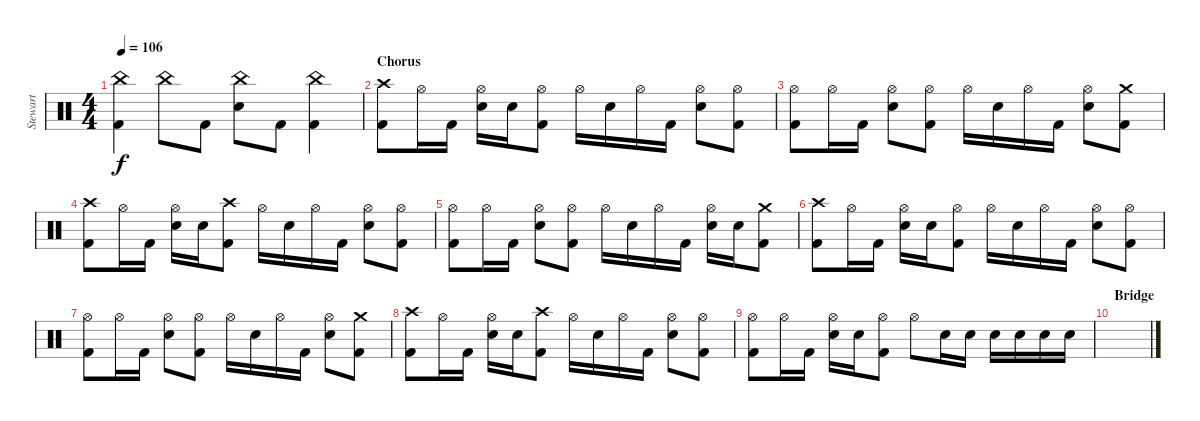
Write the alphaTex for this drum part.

\track ("Stewart" "Stewart") {instrument percussion}
\staff {score}
\articulation defaults
\ts (4 4)
\tempo 106
\clef neutral
\ks c
("China (hit)" "Kick (hit) 2").4{dy f} "China (hit)".8 "Kick (hit) 2".8 ("China (hit)" "Electric Snare (hit)").8 "Kick (hit) 2".8 ("China (hit)" "Kick (hit) 2").4 |
\section ("" "Chorus")
("Crash high (hit)" "Kick (hit) 2").8 "Hi-Hat (open)".16 "Kick (hit) 2".16 ("Hi-Hat (open)" "Electric Snare (hit)").16 "Electric Snare (hit)".16 ("Hi-Hat (open)" "Kick (hit) 2").8 "Hi-Hat (open)".16 "Electric Snare (hit)".16 "Hi-Hat (open)".16 "Kick (hit) 2".16 ("Hi-Hat (open)" "Electric Snare (hit)").8 ("Hi-Hat (open)" "Kick (hit) 2").8 |
("Hi-Hat (open)" "Kick (hit) 2").8 "Hi-Hat (open)".16 "Kick (hit) 2".16 ("Hi-Hat (open)" "Electric Snare (hit)").8 ("Hi-Hat (open)" "Kick (hit) 2").8 "Hi-Hat (open)".16 "Electric Snare (hit)".16 "Hi-Hat (open)".16 "Kick (hit) 2".16 ("Hi-Hat (open)" "Electric Snare (hit)").8 ("Crash medium (hit)" "Kick (hit) 2").8 |
("Crash high (hit)" "Kick (hit) 2").8 "Hi-Hat (open)".16 "Kick (hit) 2".16 ("Hi-Hat (open)" "Electric Snare (hit)").16 "Electric Snare (hit)".16 ("Crash high (hit)" "Kick (hit) 2").8 "Hi-Hat (open)".16 "Electric Snare (hit)".16 "Hi-Hat (open)".16 "Kick (hit) 2".16 ("Hi-Hat (open)" "Electric Snare (hit)").8 ("Hi-Hat (open)" "Kick (hit) 2").8 |
("Hi-Hat (open)" "Kick (hit) 2").8 "Hi-Hat (open)".16 "Kick (hit) 2".16 ("Hi-Hat (open)" "Electric Snare (hit)").8 ("Hi-Hat (open)" "Kick (hit) 2").8 "Hi-Hat (open)".16 "Electric Snare (hit)".16 "Hi-Hat (open)".16 "Kick (hit) 2".16 ("Hi-Hat (open)" "Electric Snare (hit)").16 "Electric Snare (hit)".16 ("Crash medium (hit)" "Kick (hit) 2").8 |
("Crash high (hit)" "Kick (hit) 2").8 "Hi-Hat (open)".16 "Kick (hit) 2".16 ("Hi-Hat (open)" "Electric Snare (hit)").16 "Electric Snare (hit)".16 ("Hi-Hat (open)" "Kick (hit) 2").8 "Hi-Hat (open)".16 "Electric Snare (hit)".16 "Hi-Hat (open)".16 "Kick (hit) 2".16 ("Hi-Hat (open)" "Electric Snare (hit)").8 ("Hi-Hat (open)" "Kick (hit) 2").8 |
("Hi-Hat (open)" "Kick (hit) 2").8 "Hi-Hat (open)".16 "Kick (hit) 2".16 ("Hi-Hat (open)" "Electric Snare (hit)").8 ("Hi-Hat (open)" "Kick (hit) 2").8 "Hi-Hat (open)".16 "Electric Snare (hit)".16 "Hi-Hat (open)".16 "Kick (hit) 2".16 ("Hi-Hat (open)" "Electric Snare (hit)").8 ("Crash medium (hit)" "Kick (hit) 2").8 |
("Crash high (hit)" "Kick (hit) 2").8 "Hi-Hat (open)".16 "Kick (hit) 2".16 ("Hi-Hat (open)" "Electric Snare (hit)").16 "Electric Snare (hit)".16 ("Crash high (hit)" "Kick (hit) 2").8 "Hi-Hat (open)".16 "Electric Snare (hit)".16 "Hi-Hat (open)".16 "Kick (hit) 2".16 ("Hi-Hat (open)" "Electric Snare (hit)").8 ("Hi-Hat (open)" "Kick (hit) 2").8 |
("Hi-Hat (open)" "Kick (hit) 2").8 "Hi-Hat (open)".16 "Kick (hit) 2".16 ("Hi-Hat (open)" "Electric Snare (hit)").16 "Electric Snare (hit)".16 ("Hi-Hat (open)" "Kick (hit) 2").8 "Hi-Hat (open)".8 "Electric Snare (hit)".16 "Electric Snare (hit)".16 "Electric Snare (hit)".16 "Electric Snare (hit)".16 "Electric Snare (hit)".16 "Electric Snare (hit)".16 |
\section ("" "Bridge")
